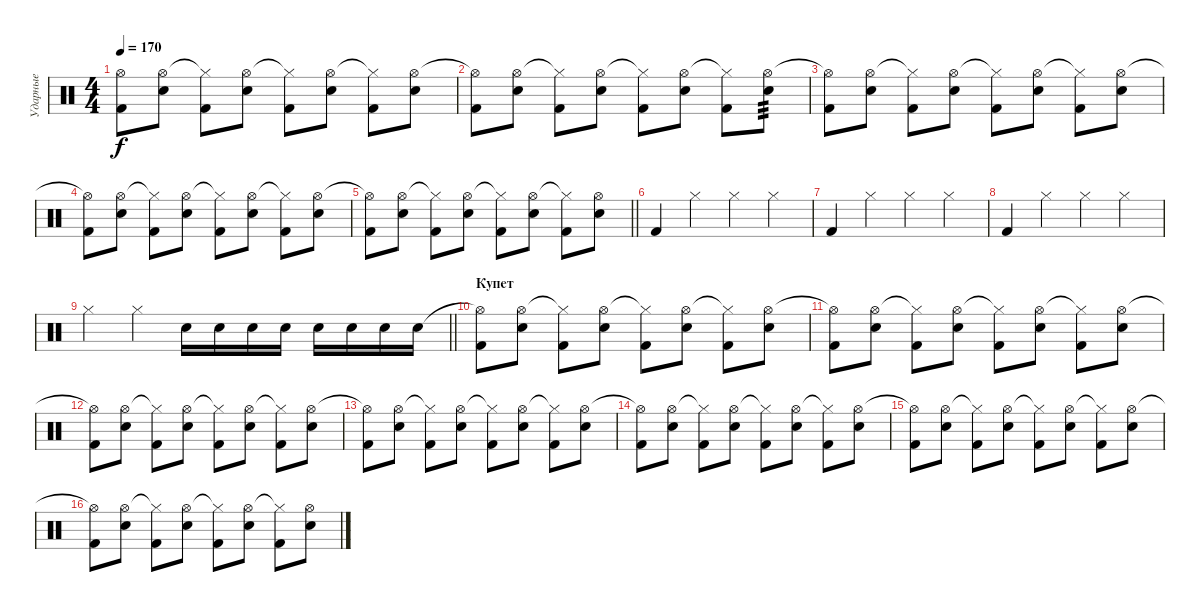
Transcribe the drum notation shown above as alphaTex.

\track ("Ударные" "Ударные") {instrument percussion}
\staff {score}
\articulation defaults
\ts (4 4)
\tempo 170
\clef neutral
\ks c
("Hi-Hat (open)"{t} "Kick (hit) 2").8{dy f} ("Hi-Hat (open)" "Electric Snare (hit)").8 ("Hi-Hat (closed)"{t} "Kick (hit) 2").8 ("Hi-Hat (open)" "Electric Snare (hit)").8 ("Hi-Hat (closed)"{t} "Kick (hit) 2").8 ("Hi-Hat (open)" "Electric Snare (hit)").8 ("Hi-Hat (closed)"{t} "Kick (hit) 2").8 ("Hi-Hat (open)" "Electric Snare (hit)").8 |
("Hi-Hat (open)"{t} "Kick (hit) 2").8 ("Hi-Hat (open)" "Electric Snare (hit)").8 ("Hi-Hat (closed)"{t} "Kick (hit) 2").8 ("Hi-Hat (open)" "Electric Snare (hit)").8 ("Hi-Hat (closed)"{t} "Kick (hit) 2").8 ("Hi-Hat (open)" "Electric Snare (hit)").8 ("Hi-Hat (closed)"{t} "Kick (hit) 2").8 ("Hi-Hat (open)" "Electric Snare (hit)").8{tp 3} |
("Hi-Hat (open)"{t} "Kick (hit) 2").8 ("Hi-Hat (open)" "Electric Snare (hit)").8 ("Hi-Hat (closed)"{t} "Kick (hit) 2").8 ("Hi-Hat (open)" "Electric Snare (hit)").8 ("Hi-Hat (closed)"{t} "Kick (hit) 2").8 ("Hi-Hat (open)" "Electric Snare (hit)").8 ("Hi-Hat (closed)"{t} "Kick (hit) 2").8 ("Hi-Hat (open)" "Electric Snare (hit)").8 |
("Hi-Hat (open)"{t} "Kick (hit) 2").8 ("Hi-Hat (open)" "Electric Snare (hit)").8 ("Hi-Hat (closed)"{t} "Kick (hit) 2").8 ("Hi-Hat (open)" "Electric Snare (hit)").8 ("Hi-Hat (closed)"{t} "Kick (hit) 2").8 ("Hi-Hat (open)" "Electric Snare (hit)").8 ("Hi-Hat (closed)"{t} "Kick (hit) 2").8 ("Hi-Hat (open)" "Electric Snare (hit)").8 |
\barLineRight lightlight
("Hi-Hat (open)"{t} "Kick (hit) 2").8 ("Hi-Hat (open)" "Electric Snare (hit)").8 ("Hi-Hat (closed)"{t} "Kick (hit) 2").8 ("Hi-Hat (open)" "Electric Snare (hit)").8 ("Hi-Hat (closed)"{t} "Kick (hit) 2").8 ("Hi-Hat (open)" "Electric Snare (hit)").8 ("Hi-Hat (closed)"{t} "Kick (hit) 2").8 ("Hi-Hat (open)" "Electric Snare (hit)").8 |
"Kick (hit) 2".4 "Hi-Hat (closed)".4 "Hi-Hat (closed)".4 "Hi-Hat (closed)".4 |
"Kick (hit) 2".4 "Hi-Hat (closed)".4 "Hi-Hat (closed)".4 "Hi-Hat (closed)".4 |
"Kick (hit) 2".4 "Hi-Hat (closed)".4 "Hi-Hat (closed)".4 "Hi-Hat (closed)".4 |
\barLineRight lightlight "Hi-Hat (closed)".4 "Hi-Hat (closed)".4 "Electric Snare (hit)".16 "Electric Snare (hit)".16 "Electric Snare (hit)".16 "Electric Snare (hit)".16 "Electric Snare (hit)".16 "Electric Snare (hit)".16 "Electric Snare (hit)".16 "Electric Snare (hit)".16
|
\section ("" "Купет")
("Hi-Hat (open)"{t} "Kick (hit) 2").8 ("Hi-Hat (open)" "Electric Snare (hit)").8 ("Hi-Hat (closed)"{t} "Kick (hit) 2").8 ("Hi-Hat (open)" "Electric Snare (hit)").8 ("Hi-Hat (closed)"{t} "Kick (hit) 2").8 ("Hi-Hat (open)" "Electric Snare (hit)").8 ("Hi-Hat (closed)"{t} "Kick (hit) 2").8 ("Hi-Hat (open)" "Electric Snare (hit)").8 |
("Hi-Hat (open)"{t} "Kick (hit) 2").8 ("Hi-Hat (open)" "Electric Snare (hit)").8 ("Hi-Hat (closed)"{t} "Kick (hit) 2").8 ("Hi-Hat (open)" "Electric Snare (hit)").8 ("Hi-Hat (closed)"{t} "Kick (hit) 2").8 ("Hi-Hat (open)" "Electric Snare (hit)").8 ("Hi-Hat (closed)"{t} "Kick (hit) 2").8 ("Hi-Hat (open)" "Electric Snare (hit)").8 |
("Hi-Hat (open)"{t} "Kick (hit) 2").8 ("Hi-Hat (open)" "Electric Snare (hit)").8 ("Hi-Hat (closed)"{t} "Kick (hit) 2").8 ("Hi-Hat (open)" "Electric Snare (hit)").8 ("Hi-Hat (closed)"{t} "Kick (hit) 2").8 ("Hi-Hat (open)" "Electric Snare (hit)").8 ("Hi-Hat (closed)"{t} "Kick (hit) 2").8 ("Hi-Hat (open)" "Electric Snare (hit)").8 |
("Hi-Hat (open)"{t} "Kick (hit) 2").8 ("Hi-Hat (open)" "Electric Snare (hit)").8 ("Hi-Hat (closed)"{t} "Kick (hit) 2").8 ("Hi-Hat (open)" "Electric Snare (hit)").8 ("Hi-Hat (closed)"{t} "Kick (hit) 2").8 ("Hi-Hat (open)" "Electric Snare (hit)").8 ("Hi-Hat (closed)"{t} "Kick (hit) 2").8 ("Hi-Hat (open)" "Electric Snare (hit)").8 |
("Hi-Hat (open)"{t} "Kick (hit) 2").8 ("Hi-Hat (open)" "Electric Snare (hit)").8 ("Hi-Hat (closed)"{t} "Kick (hit) 2").8 ("Hi-Hat (open)" "Electric Snare (hit)").8 ("Hi-Hat (closed)"{t} "Kick (hit) 2").8 ("Hi-Hat (open)" "Electric Snare (hit)").8 ("Hi-Hat (closed)"{t} "Kick (hit) 2").8 ("Hi-Hat (open)" "Electric Snare (hit)").8 |
("Hi-Hat (open)"{t} "Kick (hit) 2").8 ("Hi-Hat (open)" "Electric Snare (hit)").8 ("Hi-Hat (closed)"{t} "Kick (hit) 2").8 ("Hi-Hat (open)" "Electric Snare (hit)").8 ("Hi-Hat (closed)"{t} "Kick (hit) 2").8 ("Hi-Hat (open)" "Electric Snare (hit)").8 ("Hi-Hat (closed)"{t} "Kick (hit) 2").8 ("Hi-Hat (open)" "Electric Snare (hit)").8 |
("Hi-Hat (open)"{t} "Kick (hit) 2").8 ("Hi-Hat (open)" "Electric Snare (hit)").8 ("Hi-Hat (closed)"{t} "Kick (hit) 2").8 ("Hi-Hat (open)" "Electric Snare (hit)").8 ("Hi-Hat (closed)"{t} "Kick (hit) 2").8 ("Hi-Hat (open)" "Electric Snare (hit)").8 ("Hi-Hat (closed)"{t} "Kick (hit) 2").8 ("Hi-Hat (open)" "Electric Snare (hit)").8
